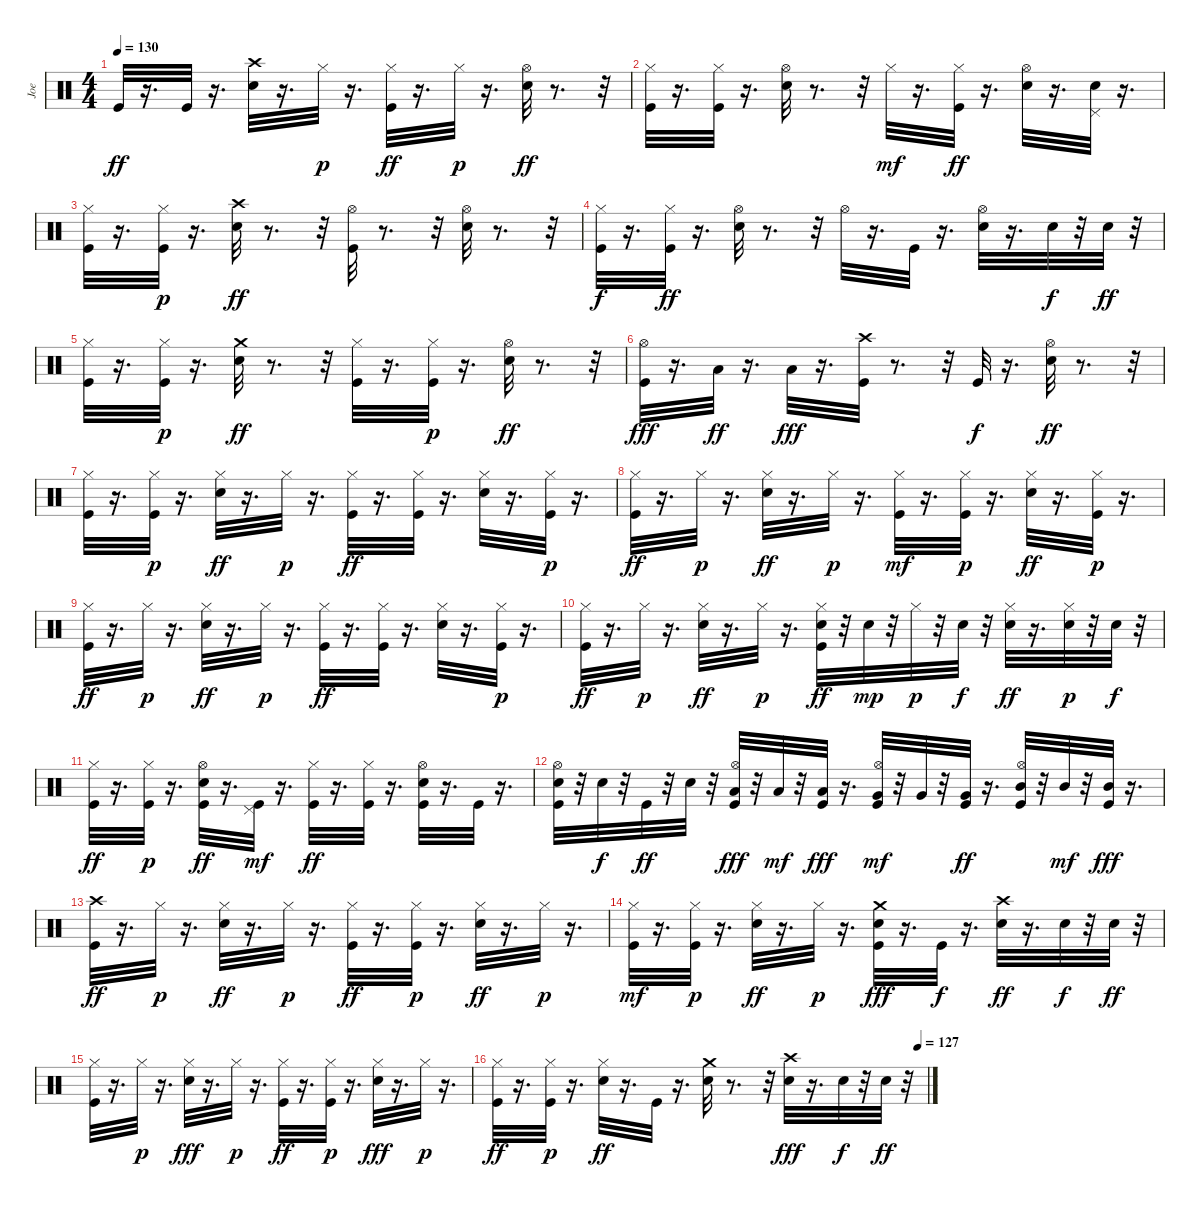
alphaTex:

\track ("Joe" "Joe") {instrument percussion}
\staff {score}
\articulation defaults
\ts (4 4)
\tempo 130
\clef neutral
\ks c "Kick (hit)".32{dy ff}
r.16{d} "Kick (hit)".32 r.16{d} ("Crash high (hit)" "Snare (hit) 2").32 r.16{d} "Hi-Hat (closed)".32{dy p} r.16{d} ("Kick (hit)" "Hi-Hat (closed)").32{dy ff} r.16{d} "Hi-Hat (closed)".32{dy p} r.16{d} ("Hi-Hat (open)" "Snare (hit) 2").32{dy ff} r.8{d} r.32 |
("Kick (hit)" "Hi-Hat (closed)").32 r.16{d} ("Hi-Hat (closed)" "Kick (hit)").32 r.16{d} ("Hi-Hat (open)" "Snare (hit) 2").32 r.8{d} r.32 "Hi-Hat (closed)".32{dy mf} r.16{d} ("Hi-Hat (closed)" "Kick (hit)").32{dy ff} r.16{d} ("Hi-Hat (open)" "Snare (hit) 2").32 r.16{d} ("Snare (hit) 2" "Pedal Hi-Hat (hit)").32 r.16{d} |
("Hi-Hat (closed)" "Kick (hit)").32 r.16{d} ("Kick (hit)" "Hi-Hat (closed)").32{dy p} r.16{d} ("Snare (hit) 2" "Crash high (hit)").32{dy ff} r.8{d} r.32 ("Hi-Hat (open)" "Kick (hit)").32 r.8{d} r.32 ("Snare (hit) 2" "Hi-Hat (open)").32 r.8{d} r.32 |
("Hi-Hat (closed)" "Kick (hit)").32{dy f} r.16{d} ("Hi-Hat (closed)" "Kick (hit)").32{dy ff} r.16{d} ("Hi-Hat (open)" "Snare (hit) 2").32 r.8{d} r.32 "Hi-Hat (open)".32 r.16{d} "Kick (hit)".32 r.16{d} ("Hi-Hat (open)" "Snare (hit) 2").32 r.16{d} "Snare (hit) 2".32{dy f} r.32 "Snare (hit) 2".32{dy ff} r.32 |
("Kick (hit)" "Hi-Hat (closed)").32 r.16{d} ("Kick (hit)" "Hi-Hat (closed)").32{dy p} r.16{d} ("Snare (hit) 2" "Crash medium (hit)").32{dy ff} r.8{d} r.32 ("Hi-Hat (closed)" "Kick (hit)").32 r.16{d} ("Kick (hit)" "Hi-Hat (closed)").32{dy p} r.16{d} ("Hi-Hat (open)" "Snare (hit) 2").32{dy ff} r.8{d} r.32 |
("Hi-Hat (open)" "Kick (hit)").32{dy fff} r.16{d} "Low Tom (hit)".32{dy ff} r.16{d} "Low Tom (hit)".32{dy fff} r.16{d} ("Crash high (hit)" "Kick (hit)").32 r.8{d} r.32 "Kick (hit)".32{dy f} r.16{d} ("Hi-Hat (open)" "Snare (hit) 2").32{dy ff} r.8{d} r.32 |
("Hi-Hat (closed)" "Kick (hit)").32 r.16{d} ("Kick (hit)" "Hi-Hat (closed)").32{dy p} r.16{d} ("Hi-Hat (closed)" "Snare (hit) 2").32{dy ff} r.16{d} "Hi-Hat (closed)".32{dy p} r.16{d} ("Kick (hit)" "Hi-Hat (closed)").32{dy ff} r.16{d} ("Hi-Hat (closed)" "Kick (hit)").32 r.16{d} ("Hi-Hat (closed)" "Snare (hit) 2").32 r.16{d} ("Kick (hit)" "Hi-Hat (closed)").32{dy p} r.16{d} |
("Hi-Hat (closed)" "Kick (hit)").32{dy ff} r.16{d} "Hi-Hat (closed)".32{dy p} r.16{d} ("Snare (hit) 2" "Hi-Hat (closed)").32{dy ff} r.16{d} "Hi-Hat (closed)".32{dy p} r.16{d} ("Kick (hit)" "Hi-Hat (closed)").32{dy mf} r.16{d} ("Kick (hit)" "Hi-Hat (closed)").32{dy p} r.16{d} ("Snare (hit) 2" "Hi-Hat (closed)").32{dy ff} r.16{d} ("Kick (hit)" "Hi-Hat (closed)").32{dy p} r.16{d} |
("Hi-Hat (closed)" "Kick (hit)").32{dy ff} r.16{d} "Hi-Hat (closed)".32{dy p} r.16{d} ("Hi-Hat (closed)" "Snare (hit) 2").32{dy ff} r.16{d} "Hi-Hat (closed)".32{dy p} r.16{d} ("Kick (hit)" "Hi-Hat (closed)").32{dy ff} r.16{d} ("Hi-Hat (closed)" "Kick (hit)").32 r.16{d} ("Hi-Hat (closed)" "Snare (hit) 2").32 r.16{d} ("Kick (hit)" "Hi-Hat (closed)").32{dy p} r.16{d} |
("Kick (hit)" "Hi-Hat (closed)").32{dy ff} r.16{d} "Hi-Hat (closed)".32{dy p} r.16{d} ("Snare (hit) 2" "Hi-Hat (closed)").32{dy ff} r.16{d} "Hi-Hat (closed)".32{dy p} r.16{d} ("Hi-Hat (closed)" "Snare (hit) 2" "Kick (hit)").32{dy ff} r.32 "Snare (hit) 2".32{dy mp} r.32 "Hi-Hat (closed)".32{dy p} r.32 "Snare (hit) 2".32{dy f} r.32 ("Hi-Hat (closed)" "Snare (hit) 2").32{dy ff} r.16{d} ("Snare (hit) 2" "Hi-Hat (closed)").32{dy p} r.32 "Snare (hit) 2".32{dy f} r.32 |
("Hi-Hat (closed)" "Kick (hit)").32{dy ff} r.16{d} ("Kick (hit)" "Hi-Hat (closed)").32{dy p} r.16{d} ("Kick (hit)" "Snare (hit) 2" "Hi-Hat (open)").32{dy ff} r.16{d} ("Kick (hit)" "Pedal Hi-Hat (hit)").32{dy mf} r.16{d} ("Kick (hit)" "Hi-Hat (closed)").32{dy ff} r.16{d} ("Hi-Hat (closed)" "Kick (hit)").32 r.16{d} ("Kick (hit)" "Snare (hit) 2" "Hi-Hat (open)").32 r.16{d} "Kick (hit)".32 r.16{d} |
("Snare (hit) 2" "Hi-Hat (open)" "Kick (hit)").32 r.32 "Snare (hit) 2".32{dy f} r.32 "Kick (hit)".32{dy ff} r.32 "Snare (hit) 2".32 r.32 ("Kick (hit)" "Hi-Hat (open)" "Low Tom (hit)").32{dy fff} r.32 "Low Tom (hit)".32{dy mf} r.32 ("Kick (hit)" "Low Tom (hit)").32{dy fff} r.16{d} ("Kick (hit)" "Very Low Tom (hit)" "Hi-Hat (open)").32{dy mf} r.32 "Very Low Tom (hit)".32 r.32 ("Kick (hit)" "Very Low Tom (hit)").32{dy ff} r.16{d} ("Mid Tom (hit)" "Kick (hit)" "Hi-Hat (open)").32 r.32 "Mid Tom (hit)".32{dy mf} r.32 ("Mid Tom (hit)" "Kick (hit)").32{dy fff} r.16{d} |
("Crash high (hit)" "Kick (hit)").32{dy ff} r.16{d} "Hi-Hat (closed)".32{dy p} r.16{d} ("Hi-Hat (closed)" "Snare (hit) 2").32{dy ff} r.16{d} "Hi-Hat (closed)".32{dy p} r.16{d} ("Hi-Hat (closed)" "Kick (hit)").32{dy ff} r.16{d} ("Hi-Hat (closed)" "Kick (hit)").32{dy p} r.16{d} ("Hi-Hat (closed)" "Snare (hit) 2").32{dy ff} r.16{d} "Hi-Hat (closed)".32{dy p} r.16{d} |
("Kick (hit)" "Hi-Hat (closed)").32{dy mf} r.16{d} ("Hi-Hat (closed)" "Kick (hit)").32{dy p} r.16{d} ("Snare (hit) 2" "Hi-Hat (closed)").32{dy ff} r.16{d} "Hi-Hat (closed)".32{dy p} r.16{d} ("Snare (hit) 2" "Crash medium (hit)" "Kick (hit)").32{dy fff} r.16{d} "Kick (hit)".32{dy f} r.16{d} ("Snare (hit) 2" "Crash high (hit)").32{dy ff} r.16{d} "Snare (hit) 2".32{dy f} r.32 "Snare (hit) 2".32{dy ff} r.32 |
("Kick (hit)" "Hi-Hat (closed)").32 r.16{d} "Hi-Hat (closed)".32{dy p} r.16{d} ("Hi-Hat (closed)" "Snare (hit) 2").32{dy fff} r.16{d} "Hi-Hat (closed)".32{dy p} r.16{d} ("Kick (hit)" "Hi-Hat (closed)").32{dy ff} r.16{d} ("Kick (hit)" "Hi-Hat (closed)").32{dy p} r.16{d} ("Hi-Hat (closed)" "Snare (hit) 2").32{dy fff} r.16{d} "Hi-Hat (closed)".32{dy p} r.16{d} |
\tempo (127 0.9791666666666666)
("Kick (hit)" "Hi-Hat (closed)").32{dy ff} r.16{d} ("Kick (hit)" "Hi-Hat (closed)").32{dy p} r.16{d} ("Hi-Hat (closed)" "Snare (hit) 2").32{dy ff} r.16{d} "Kick (hit)".32 r.16{d} ("Crash medium (hit)" "Snare (hit) 2").32 r.8{d} r.32 ("Crash high (hit)" "Snare (hit) 2").32{dy fff} r.16{d} "Snare (hit) 2".32{dy f} r.32 "Snare (hit) 2".32{dy ff} r.32
